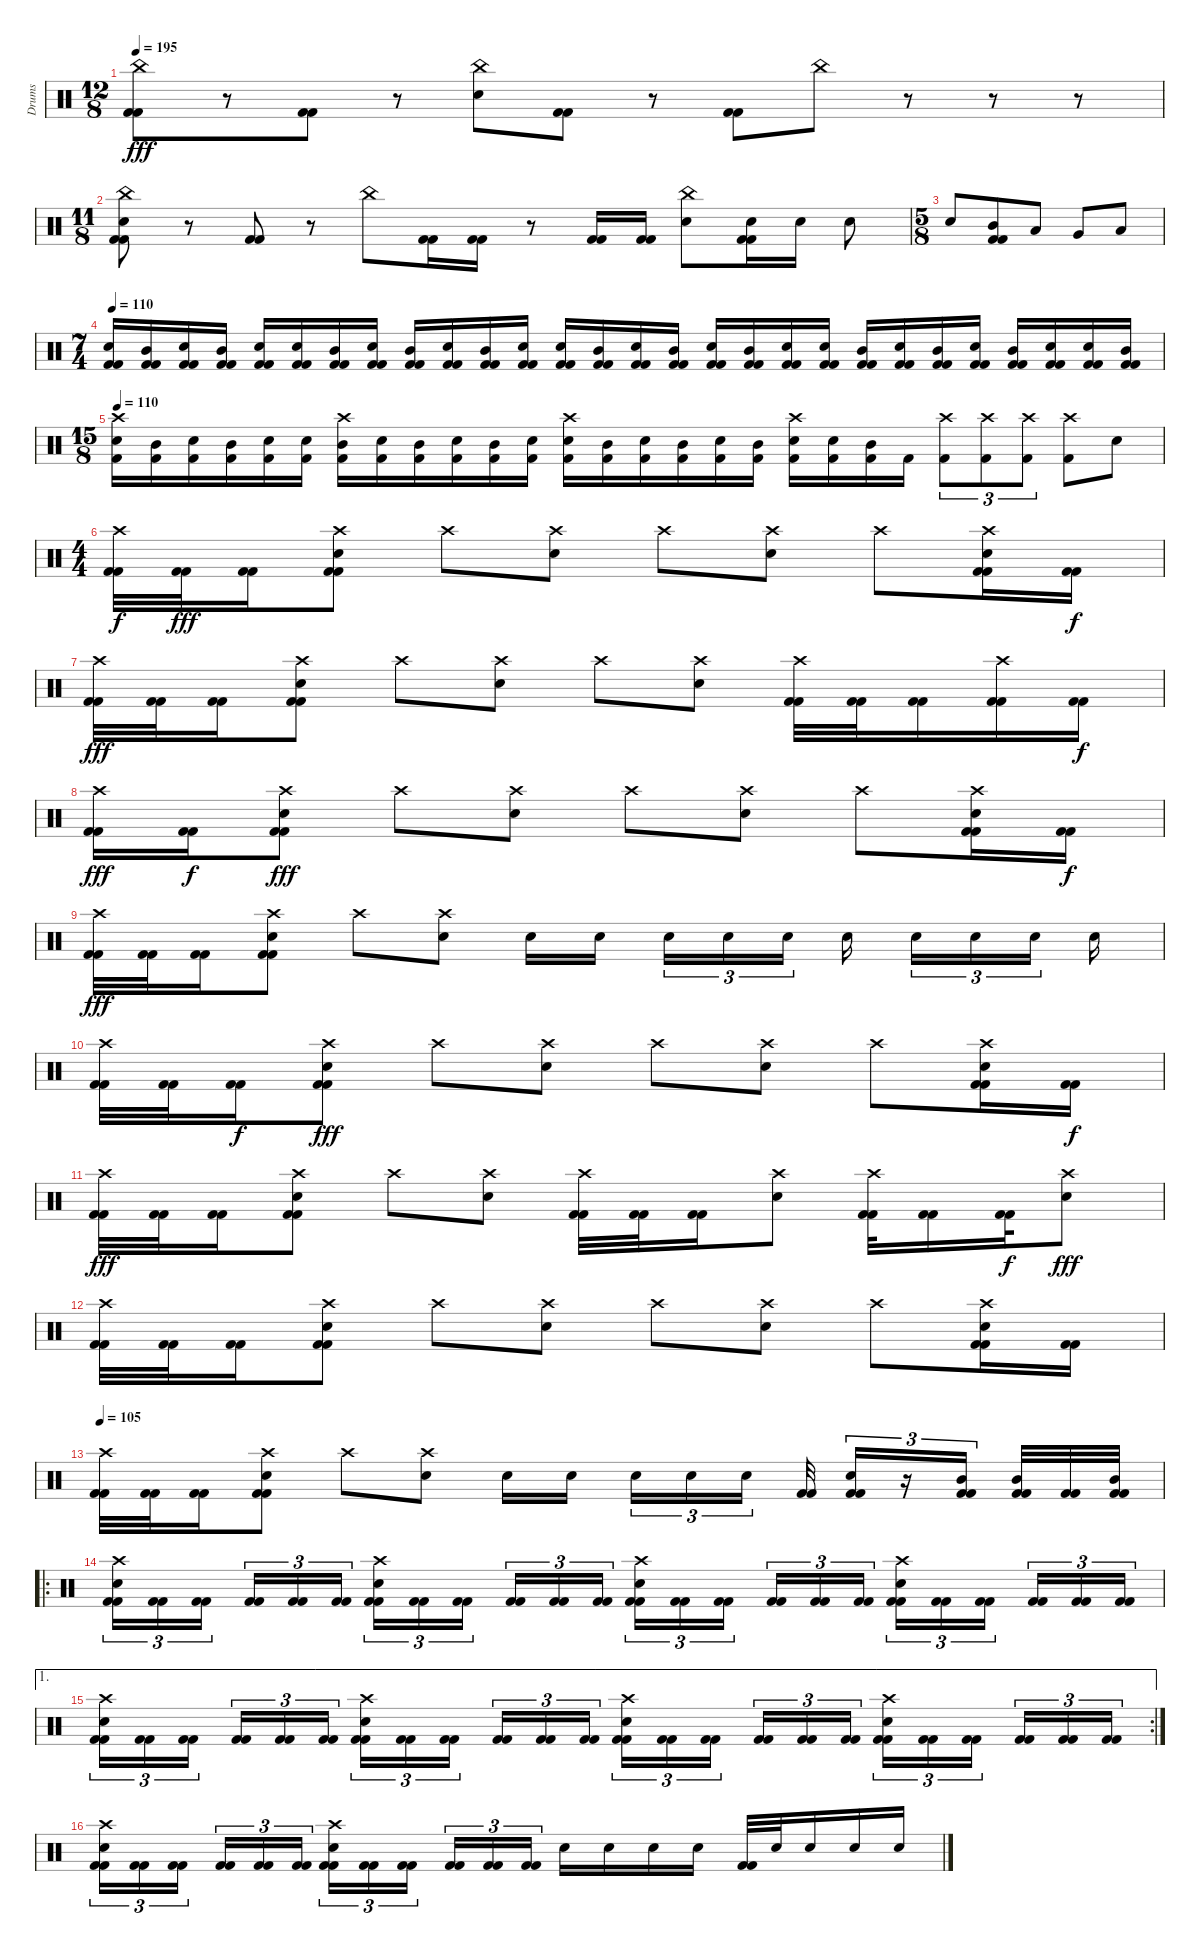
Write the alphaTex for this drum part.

\track ("Drums" "Drums") {instrument percussion}
\staff {score}
\articulation defaults
\ts (12 8)
\tempo 195
\clef neutral
\ks c
("China (hit)" "Kick (hit) 2" "Kick (hit) 2").8{dy fff} r.8 ("Kick (hit) 2" "Kick (hit) 2").8 r.8 ("China (hit)" "Electric Snare (hit)").8 ("Kick (hit) 2" "Kick (hit) 2").8 r.8 ("Kick (hit) 2" "Kick (hit) 2").8 "China (hit)".8 r.8 r.8 r.8 |
\ts (11 8)
("China (hit)" "Electric Snare (hit)" "Kick (hit) 2" "Kick (hit) 2").8 r.8 ("Kick (hit) 2" "Kick (hit) 2").8 r.8 "China (hit)".8 ("Kick (hit) 2" "Kick (hit) 2").16 ("Kick (hit) 2" "Kick (hit) 2").16 r.8 ("Kick (hit) 2" "Kick (hit) 2").16 ("Kick (hit) 2" "Kick (hit) 2").16 ("China (hit)" "Electric Snare (hit)").8 ("Electric Snare (hit)" "Kick (hit) 2" "Kick (hit) 2").16 "Electric Snare (hit)".16 "Electric Snare (hit)".8 |
\ts (5 8)
"Electric Snare (hit)".8 ("Mid Tom (hit)" "Kick (hit) 2" "Kick (hit) 2").8 "Low Tom (hit)".8 "Very Low Tom (hit)".8 "Low Floor Tom (hit)".8 |
\ts (7 4)
\tempo 110
("Electric Snare (hit)" "Kick (hit) 2" "Kick (hit) 2").16 ("Mid Tom (hit)" "Kick (hit) 2" "Kick (hit) 2").16 ("Electric Snare (hit)" "Kick (hit) 2" "Kick (hit) 2").16 ("Mid Tom (hit)" "Kick (hit) 2" "Kick (hit) 2").16 ("Electric Snare (hit)" "Kick (hit) 2" "Kick (hit) 2").16 ("Electric Snare (hit)" "Kick (hit) 2" "Kick (hit) 2").16 ("Mid Tom (hit)" "Kick (hit) 2" "Kick (hit) 2").16 ("Electric Snare (hit)" "Kick (hit) 2" "Kick (hit) 2").16 ("Mid Tom (hit)" "Kick (hit) 2" "Kick (hit) 2").16 ("Electric Snare (hit)" "Kick (hit) 2" "Kick (hit) 2").16 ("Mid Tom (hit)" "Kick (hit) 2" "Kick (hit) 2").16 ("Electric Snare (hit)" "Kick (hit) 2" "Kick (hit) 2").16 ("Electric Snare (hit)" "Kick (hit) 2" "Kick (hit) 2").16 ("Mid Tom (hit)" "Kick (hit) 2" "Kick (hit) 2").16 ("Electric Snare (hit)" "Kick (hit) 2" "Kick (hit) 2").16 ("Mid Tom (hit)" "Kick (hit) 2" "Kick (hit) 2").16 ("Electric Snare (hit)" "Kick (hit) 2" "Kick (hit) 2").16 ("Mid Tom (hit)" "Kick (hit) 2" "Kick (hit) 2").16 ("Electric Snare (hit)" "Kick (hit) 2" "Kick (hit) 2").16 ("Electric Snare (hit)" "Kick (hit) 2" "Kick (hit) 2").16 ("Mid Tom (hit)" "Kick (hit) 2" "Kick (hit) 2").16 ("Electric Snare (hit)" "Kick (hit) 2" "Kick (hit) 2").16 ("Mid Tom (hit)" "Kick (hit) 2" "Kick (hit) 2").16 ("Electric Snare (hit)" "Kick (hit) 2" "Kick (hit) 2").16 ("Mid Tom (hit)" "Kick (hit) 2" "Kick (hit) 2").16 ("Electric Snare (hit)" "Kick (hit) 2" "Kick (hit) 2").16 ("Electric Snare (hit)" "Kick (hit) 2" "Kick (hit) 2").16 ("Mid Tom (hit)" "Kick (hit) 2" "Kick (hit) 2").16 |
\ts (15 8)
\tempo 110
("Crash high (hit)" "Electric Snare (hit)" "Kick (hit) 2").16 ("Mid Tom (hit)" "Kick (hit) 2").16 ("Electric Snare (hit)" "Kick (hit) 2").16 ("Mid Tom (hit)" "Kick (hit) 2").16 ("Electric Snare (hit)" "Kick (hit) 2").16 ("Electric Snare (hit)" "Kick (hit) 2").16 ("Crash high (hit)" "Mid Tom (hit)" "Kick (hit) 2").16 ("Electric Snare (hit)" "Kick (hit) 2").16 ("Mid Tom (hit)" "Kick (hit) 2").16 ("Electric Snare (hit)" "Kick (hit) 2").16 ("Mid Tom (hit)" "Kick (hit) 2").16 ("Electric Snare (hit)" "Kick (hit) 2").16 ("Crash high (hit)" "Electric Snare (hit)" "Kick (hit) 2").16 ("Mid Tom (hit)" "Kick (hit) 2").16 ("Electric Snare (hit)" "Kick (hit) 2").16 ("Mid Tom (hit)" "Kick (hit) 2").16 ("Electric Snare (hit)" "Kick (hit) 2").16 ("Mid Tom (hit)" "Kick (hit) 2").16 ("Crash high (hit)" "Electric Snare (hit)" "Kick (hit) 2").16 ("Electric Snare (hit)" "Kick (hit) 2").16 ("Mid Tom (hit)" "Kick (hit) 2").16 "Kick (hit) 2".16 ("Crash high (hit)" "Kick (hit) 2").8{tu (3 2)} ("Crash high (hit)" "Kick (hit) 2").8{tu (3 2)} ("Crash high (hit)" "Kick (hit) 2").8{tu (3 2)} ("Crash high (hit)" "Kick (hit) 2").8 "Electric Snare (hit)".8 |
\ts (4 4)
("Crash high (hit)" "Kick (hit) 2" "Kick (hit) 2").32{dy f} ("Kick (hit) 2" "Kick (hit) 2").32{dy fff} ("Kick (hit) 2" "Kick (hit) 2").16 ("Crash high (hit)" "Electric Snare (hit)" "Kick (hit) 2" "Kick (hit) 2").8 "Crash high (hit)".8 ("Crash high (hit)" "Electric Snare (hit)").8 "Crash high (hit)".8 ("Crash high (hit)" "Electric Snare (hit)").8 "Crash high (hit)".8 ("Crash high (hit)" "Electric Snare (hit)" "Kick (hit) 2" "Kick (hit) 2").16 ("Kick (hit) 2" "Kick (hit) 2").16{dy f} |
("Crash high (hit)" "Kick (hit) 2" "Kick (hit) 2").32{dy fff} ("Kick (hit) 2" "Kick (hit) 2").32 ("Kick (hit) 2" "Kick (hit) 2").16 ("Crash high (hit)" "Electric Snare (hit)" "Kick (hit) 2" "Kick (hit) 2").8 "Crash high (hit)".8 ("Crash high (hit)" "Electric Snare (hit)").8 "Crash high (hit)".8 ("Crash high (hit)" "Electric Snare (hit)").8 ("Crash high (hit)" "Kick (hit) 2" "Kick (hit) 2").32 ("Kick (hit) 2" "Kick (hit) 2").32 ("Kick (hit) 2" "Kick (hit) 2").16 ("Crash high (hit)" "Kick (hit) 2" "Kick (hit) 2").16 ("Kick (hit) 2" "Kick (hit) 2").16{dy f} |
("Crash high (hit)" "Kick (hit) 2" "Kick (hit) 2").16{dy fff} ("Kick (hit) 2" "Kick (hit) 2").16{dy f} ("Crash high (hit)" "Electric Snare (hit)" "Kick (hit) 2" "Kick (hit) 2").8{dy fff} "Crash high (hit)".8 ("Crash high (hit)" "Electric Snare (hit)").8 "Crash high (hit)".8 ("Crash high (hit)" "Electric Snare (hit)").8 "Crash high (hit)".8 ("Crash high (hit)" "Electric Snare (hit)" "Kick (hit) 2" "Kick (hit) 2").16 ("Kick (hit) 2" "Kick (hit) 2").16{dy f} |
("Crash high (hit)" "Kick (hit) 2" "Kick (hit) 2").32{dy fff} ("Kick (hit) 2" "Kick (hit) 2").32 ("Kick (hit) 2" "Kick (hit) 2").16 ("Crash high (hit)" "Electric Snare (hit)" "Kick (hit) 2" "Kick (hit) 2").8 "Crash high (hit)".8 ("Crash high (hit)" "Electric Snare (hit)").8 "Electric Snare (hit)".16 "Electric Snare (hit)".16{beam splitsecondary} "Electric Snare (hit)".16{tu (3 2)} "Electric Snare (hit)".16{tu (3 2)} "Electric Snare (hit)".16{tu (3 2)} "Electric Snare (hit)".16{beam splitsecondary} "Electric Snare (hit)".16{tu (3 2)} "Electric Snare (hit)".16{tu (3 2)} "Electric Snare (hit)".16{tu (3 2) beam splitsecondary} "Electric Snare (hit)".16 |
("Crash high (hit)" "Kick (hit) 2" "Kick (hit) 2").32 ("Kick (hit) 2" "Kick (hit) 2").32 ("Kick (hit) 2" "Kick (hit) 2").16{dy f} ("Crash high (hit)" "Electric Snare (hit)" "Kick (hit) 2" "Kick (hit) 2").8{dy fff} "Crash high (hit)".8 ("Crash high (hit)" "Electric Snare (hit)").8 "Crash high (hit)".8 ("Crash high (hit)" "Electric Snare (hit)").8 "Crash high (hit)".8 ("Crash high (hit)" "Electric Snare (hit)" "Kick (hit) 2" "Kick (hit) 2").16 ("Kick (hit) 2" "Kick (hit) 2").16{dy f} |
("Crash high (hit)" "Kick (hit) 2" "Kick (hit) 2").32{dy fff} ("Kick (hit) 2" "Kick (hit) 2").32 ("Kick (hit) 2" "Kick (hit) 2").16 ("Crash high (hit)" "Electric Snare (hit)" "Kick (hit) 2" "Kick (hit) 2").8 "Crash high (hit)".8 ("Crash high (hit)" "Electric Snare (hit)").8 ("Crash high (hit)" "Kick (hit) 2" "Kick (hit) 2").32 ("Kick (hit) 2" "Kick (hit) 2").32 ("Kick (hit) 2" "Kick (hit) 2").16 ("Crash high (hit)" "Electric Snare (hit)").8 ("Crash high (hit)" "Kick (hit) 2" "Kick (hit) 2").32 ("Kick (hit) 2" "Kick (hit) 2").16 ("Kick (hit) 2" "Kick (hit) 2").32{dy f} ("Crash high (hit)" "Electric Snare (hit)").8{dy fff} |
("Crash high (hit)" "Kick (hit) 2" "Kick (hit) 2").32 ("Kick (hit) 2" "Kick (hit) 2").32 ("Kick (hit) 2" "Kick (hit) 2").16 ("Crash high (hit)" "Electric Snare (hit)" "Kick (hit) 2" "Kick (hit) 2").8 "Crash high (hit)".8 ("Crash high (hit)" "Electric Snare (hit)").8 "Crash high (hit)".8 ("Crash high (hit)" "Electric Snare (hit)").8 "Crash high (hit)".8 ("Crash high (hit)" "Electric Snare (hit)" "Kick (hit) 2" "Kick (hit) 2").16 ("Kick (hit) 2" "Kick (hit) 2").16 |
\tempo 105
("Crash high (hit)" "Kick (hit) 2" "Kick (hit) 2").32 ("Kick (hit) 2" "Kick (hit) 2").32 ("Kick (hit) 2" "Kick (hit) 2").16 ("Crash high (hit)" "Electric Snare (hit)" "Kick (hit) 2" "Kick (hit) 2").8 "Crash high (hit)".8 ("Crash high (hit)" "Electric Snare (hit)").8 "Electric Snare (hit)".16 "Electric Snare (hit)".16{beam splitsecondary} "Electric Snare (hit)".16{tu (3 2)} "Electric Snare (hit)".16{tu (3 2)} "Electric Snare (hit)".16{tu (3 2)} ("Kick (hit) 2" "Kick (hit) 2").32 ("Electric Snare (hit)" "Kick (hit) 2" "Kick (hit) 2").16{tu (3 2)} r.16{tu (3 2)} ("Mid Tom (hit)" "Kick (hit) 2" "Kick (hit) 2").16{tu (3 2) beam splitsecondary} ("Mid Tom (hit)" "Kick (hit) 2" "Kick (hit) 2").32 ("Kick (hit) 2" "Kick (hit) 2").32 ("Mid Tom (hit)" "Kick (hit) 2" "Kick (hit) 2").32 |
\ro
("Crash high (hit)" "Electric Snare (hit)" "Kick (hit) 2" "Kick (hit) 2").16{tu (3 2)} ("Kick (hit) 2" "Kick (hit) 2").16{tu (3 2)} ("Kick (hit) 2" "Kick (hit) 2").16{tu (3 2) beam splitsecondary} ("Kick (hit) 2" "Kick (hit) 2").16{tu (3 2)} ("Kick (hit) 2" "Kick (hit) 2").16{tu (3 2)} ("Kick (hit) 2" "Kick (hit) 2").16{tu (3 2)} ("Crash high (hit)" "Electric Snare (hit)" "Kick (hit) 2" "Kick (hit) 2").16{tu (3 2)} ("Kick (hit) 2" "Kick (hit) 2").16{tu (3 2)} ("Kick (hit) 2" "Kick (hit) 2").16{tu (3 2) beam splitsecondary} ("Kick (hit) 2" "Kick (hit) 2").16{tu (3 2)} ("Kick (hit) 2" "Kick (hit) 2").16{tu (3 2)} ("Kick (hit) 2" "Kick (hit) 2").16{tu (3 2)} ("Crash high (hit)" "Electric Snare (hit)" "Kick (hit) 2" "Kick (hit) 2").16{tu (3 2)} ("Kick (hit) 2" "Kick (hit) 2").16{tu (3 2)} ("Kick (hit) 2" "Kick (hit) 2").16{tu (3 2) beam splitsecondary} ("Kick (hit) 2" "Kick (hit) 2").16{tu (3 2)} ("Kick (hit) 2" "Kick (hit) 2").16{tu (3 2)} ("Kick (hit) 2" "Kick (hit) 2").16{tu (3 2)} ("Crash high (hit)" "Electric Snare (hit)" "Kick (hit) 2" "Kick (hit) 2").16{tu (3 2)} ("Kick (hit) 2" "Kick (hit) 2").16{tu (3 2)} ("Kick (hit) 2" "Kick (hit) 2").16{tu (3 2) beam splitsecondary} ("Kick (hit) 2" "Kick (hit) 2").16{tu (3 2)} ("Kick (hit) 2" "Kick (hit) 2").16{tu (3 2)} ("Kick (hit) 2" "Kick (hit) 2").16{tu (3 2)} |
\ae 1
\rc 2
("Crash high (hit)" "Electric Snare (hit)" "Kick (hit) 2" "Kick (hit) 2").16{tu (3 2)} ("Kick (hit) 2" "Kick (hit) 2").16{tu (3 2)} ("Kick (hit) 2" "Kick (hit) 2").16{tu (3 2) beam splitsecondary} ("Kick (hit) 2" "Kick (hit) 2").16{tu (3 2)} ("Kick (hit) 2" "Kick (hit) 2").16{tu (3 2)} ("Kick (hit) 2" "Kick (hit) 2").16{tu (3 2)} ("Crash high (hit)" "Electric Snare (hit)" "Kick (hit) 2" "Kick (hit) 2").16{tu (3 2)} ("Kick (hit) 2" "Kick (hit) 2").16{tu (3 2)} ("Kick (hit) 2" "Kick (hit) 2").16{tu (3 2) beam splitsecondary} ("Kick (hit) 2" "Kick (hit) 2").16{tu (3 2)} ("Kick (hit) 2" "Kick (hit) 2").16{tu (3 2)} ("Kick (hit) 2" "Kick (hit) 2").16{tu (3 2)} ("Crash high (hit)" "Electric Snare (hit)" "Kick (hit) 2" "Kick (hit) 2").16{tu (3 2)} ("Kick (hit) 2" "Kick (hit) 2").16{tu (3 2)} ("Kick (hit) 2" "Kick (hit) 2").16{tu (3 2) beam splitsecondary} ("Kick (hit) 2" "Kick (hit) 2").16{tu (3 2)} ("Kick (hit) 2" "Kick (hit) 2").16{tu (3 2)} ("Kick (hit) 2" "Kick (hit) 2").16{tu (3 2)} ("Crash high (hit)" "Electric Snare (hit)" "Kick (hit) 2" "Kick (hit) 2").16{tu (3 2)} ("Kick (hit) 2" "Kick (hit) 2").16{tu (3 2)} ("Kick (hit) 2" "Kick (hit) 2").16{tu (3 2) beam splitsecondary} ("Kick (hit) 2" "Kick (hit) 2").16{tu (3 2)} ("Kick (hit) 2" "Kick (hit) 2").16{tu (3 2)} ("Kick (hit) 2" "Kick (hit) 2").16{tu (3 2)} |
("Crash high (hit)" "Electric Snare (hit)" "Kick (hit) 2" "Kick (hit) 2").16{tu (3 2)} ("Kick (hit) 2" "Kick (hit) 2").16{tu (3 2)} ("Kick (hit) 2" "Kick (hit) 2").16{tu (3 2) beam splitsecondary} ("Kick (hit) 2" "Kick (hit) 2").16{tu (3 2)} ("Kick (hit) 2" "Kick (hit) 2").16{tu (3 2)} ("Kick (hit) 2" "Kick (hit) 2").16{tu (3 2)} ("Crash high (hit)" "Electric Snare (hit)" "Kick (hit) 2" "Kick (hit) 2").16{tu (3 2)} ("Kick (hit) 2" "Kick (hit) 2").16{tu (3 2)} ("Kick (hit) 2" "Kick (hit) 2").16{tu (3 2) beam splitsecondary} ("Kick (hit) 2" "Kick (hit) 2").16{tu (3 2)} ("Kick (hit) 2" "Kick (hit) 2").16{tu (3 2)} ("Kick (hit) 2" "Kick (hit) 2").16{tu (3 2)} "Electric Snare (hit)".16 "Electric Snare (hit)".16 "Electric Snare (hit)".16 "Electric Snare (hit)".16 ("Kick (hit) 2" "Kick (hit) 2").32 "Electric Snare (hit)".32 "Electric Snare (hit)".16 "Electric Snare (hit)".16 "Electric Snare (hit)".16
